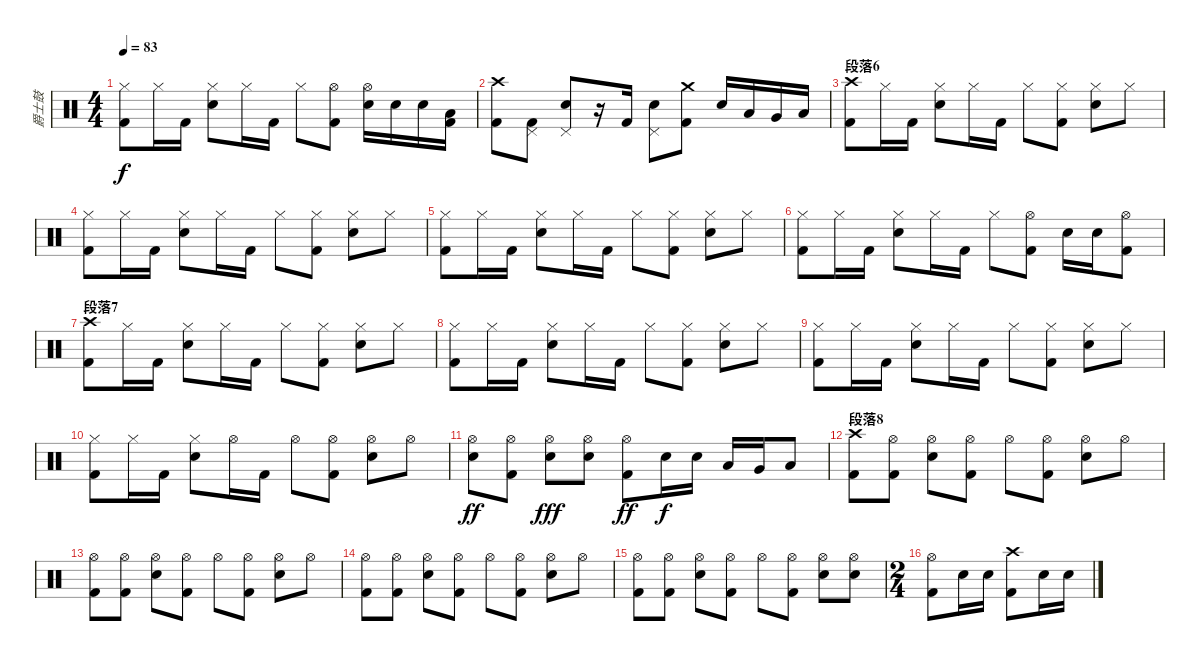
\track ("爵士鼓" "爵士鼓") {instrument percussion}
\staff {score}
\articulation defaults
\ts (4 4)
\tempo 83
\clef neutral
\ks c
("Hi-Hat (closed)" "Kick (hit) 2").8{dy f} "Hi-Hat (closed)".16 "Kick (hit) 2".16 ("Hi-Hat (closed)" "Electric Snare (hit)").8 "Hi-Hat (closed)".16 "Kick (hit) 2".16 "Hi-Hat (closed)".8 ("Hi-Hat (open)" "Kick (hit) 2").8 ("Hi-Hat (open)" "Electric Snare (hit)").16 "Electric Snare (hit)".16 "Electric Snare (hit)".16 ("Low Tom (hit)" "Kick (hit) 2").16 |
("Crash high (hit)" "Kick (hit) 2").8 ("Pedal Hi-Hat (hit)" "Kick (hit) 2").8 ("Pedal Hi-Hat (hit)" "Electric Snare (hit)").8 r.16 "Kick (hit) 2".16 ("Pedal Hi-Hat (hit)" "Electric Snare (hit)").8 ("Crash medium (hit)" "Kick (hit) 2").8 "Electric Snare (hit)".16 "Low Tom (hit)".16 "Very Low Tom (hit)".16 "Low Floor Tom (hit)".16 |
\section ("" "段落6")
("Crash high (hit)" "Kick (hit) 2").8 "Hi-Hat (closed)".16 "Kick (hit) 2".16 ("Hi-Hat (closed)" "Electric Snare (hit)").8 "Hi-Hat (closed)".16 "Kick (hit) 2".16 "Hi-Hat (closed)".8 ("Hi-Hat (closed)" "Kick (hit) 2").8 ("Hi-Hat (closed)" "Electric Snare (hit)").8 "Hi-Hat (closed)".8 |
("Hi-Hat (closed)" "Kick (hit) 2").8 "Hi-Hat (closed)".16 "Kick (hit) 2".16 ("Hi-Hat (closed)" "Electric Snare (hit)").8 "Hi-Hat (closed)".16 "Kick (hit) 2".16 "Hi-Hat (closed)".8 ("Hi-Hat (closed)" "Kick (hit) 2").8 ("Hi-Hat (closed)" "Electric Snare (hit)").8 "Hi-Hat (closed)".8 |
("Hi-Hat (closed)" "Kick (hit) 2").8 "Hi-Hat (closed)".16 "Kick (hit) 2".16 ("Hi-Hat (closed)" "Electric Snare (hit)").8 "Hi-Hat (closed)".16 "Kick (hit) 2".16 "Hi-Hat (closed)".8 ("Hi-Hat (closed)" "Kick (hit) 2").8 ("Hi-Hat (closed)" "Electric Snare (hit)").8 "Hi-Hat (closed)".8 |
("Hi-Hat (closed)" "Kick (hit) 2").8 "Hi-Hat (closed)".16 "Kick (hit) 2".16 ("Hi-Hat (closed)" "Electric Snare (hit)").8 "Hi-Hat (closed)".16 "Kick (hit) 2".16 "Hi-Hat (closed)".8 ("Hi-Hat (open)" "Kick (hit) 2").8 "Electric Snare (hit)".16 "Electric Snare (hit)".16 ("Hi-Hat (open)" "Kick (hit) 2").8 |
\section ("" "段落7")
("Crash high (hit)" "Kick (hit) 2").8 "Hi-Hat (closed)".16 "Kick (hit) 2".16 ("Hi-Hat (closed)" "Electric Snare (hit)").8 "Hi-Hat (closed)".16 "Kick (hit) 2".16 "Hi-Hat (closed)".8 ("Hi-Hat (closed)" "Kick (hit) 2").8 ("Hi-Hat (closed)" "Electric Snare (hit)").8 "Hi-Hat (closed)".8 |
("Hi-Hat (closed)" "Kick (hit) 2").8 "Hi-Hat (closed)".16 "Kick (hit) 2".16 ("Hi-Hat (closed)" "Electric Snare (hit)").8 "Hi-Hat (closed)".16 "Kick (hit) 2".16 "Hi-Hat (closed)".8 ("Hi-Hat (closed)" "Kick (hit) 2").8 ("Hi-Hat (closed)" "Electric Snare (hit)").8 "Hi-Hat (closed)".8 |
("Hi-Hat (closed)" "Kick (hit) 2").8 "Hi-Hat (closed)".16 "Kick (hit) 2".16 ("Hi-Hat (closed)" "Electric Snare (hit)").8 "Hi-Hat (closed)".16 "Kick (hit) 2".16 "Hi-Hat (closed)".8 ("Hi-Hat (closed)" "Kick (hit) 2").8 ("Hi-Hat (closed)" "Electric Snare (hit)").8 "Hi-Hat (closed)".8 |
("Hi-Hat (closed)" "Kick (hit) 2").8 "Hi-Hat (closed)".16 "Kick (hit) 2".16 ("Hi-Hat (closed)" "Electric Snare (hit)").8 "Hi-Hat (open)".16 "Kick (hit) 2".16 "Hi-Hat (open)".8 ("Hi-Hat (open)" "Kick (hit) 2").8 ("Hi-Hat (open)" "Electric Snare (hit)").8 "Hi-Hat (open)".8 |
("Hi-Hat (open)" "Electric Snare (hit)").8{dy ff} ("Hi-Hat (open)" "Kick (hit) 2").8 ("Hi-Hat (open)" "Electric Snare (hit)").8{dy fff} ("Hi-Hat (open)" "Electric Snare (hit)").8 ("Hi-Hat (open)" "Kick (hit) 2").8{dy ff} "Electric Snare (hit)".16{dy f} "Electric Snare (hit)".16 "Low Tom (hit)".16 "Very Low Tom (hit)".16 "Low Floor Tom (hit)".8 |
\section ("" "段落8")
("Crash high (hit)" "Kick (hit) 2").8 ("Hi-Hat (open)" "Kick (hit) 2").8 ("Hi-Hat (open)" "Electric Snare (hit)").8 ("Hi-Hat (open)" "Kick (hit) 2").8 "Hi-Hat (open)".8 ("Hi-Hat (open)" "Kick (hit) 2").8 ("Hi-Hat (open)" "Electric Snare (hit)").8 "Hi-Hat (open)".8 |
("Hi-Hat (open)" "Kick (hit) 2").8 ("Hi-Hat (open)" "Kick (hit) 2").8 ("Hi-Hat (open)" "Electric Snare (hit)").8 ("Hi-Hat (open)" "Kick (hit) 2").8 "Hi-Hat (open)".8 ("Hi-Hat (open)" "Kick (hit) 2").8 ("Hi-Hat (open)" "Electric Snare (hit)").8 "Hi-Hat (open)".8 |
("Hi-Hat (open)" "Kick (hit) 2").8 ("Hi-Hat (open)" "Kick (hit) 2").8 ("Hi-Hat (open)" "Electric Snare (hit)").8 ("Hi-Hat (open)" "Kick (hit) 2").8 "Hi-Hat (open)".8 ("Hi-Hat (open)" "Kick (hit) 2").8 ("Hi-Hat (open)" "Electric Snare (hit)").8 "Hi-Hat (open)".8 |
("Hi-Hat (open)" "Kick (hit) 2").8 ("Hi-Hat (open)" "Kick (hit) 2").8 ("Hi-Hat (open)" "Electric Snare (hit)").8 ("Hi-Hat (open)" "Kick (hit) 2").8 "Hi-Hat (open)".8 ("Hi-Hat (open)" "Kick (hit) 2").8 ("Hi-Hat (open)" "Electric Snare (hit)").8 ("Hi-Hat (open)" "Electric Snare (hit)").8 |
\ts (2 4)
("Hi-Hat (open)" "Kick (hit) 2").8 "Electric Snare (hit)".16 "Electric Snare (hit)".16 ("Crash high (hit)" "Kick (hit) 2").8 "Electric Snare (hit)".16 "Electric Snare (hit)".16
